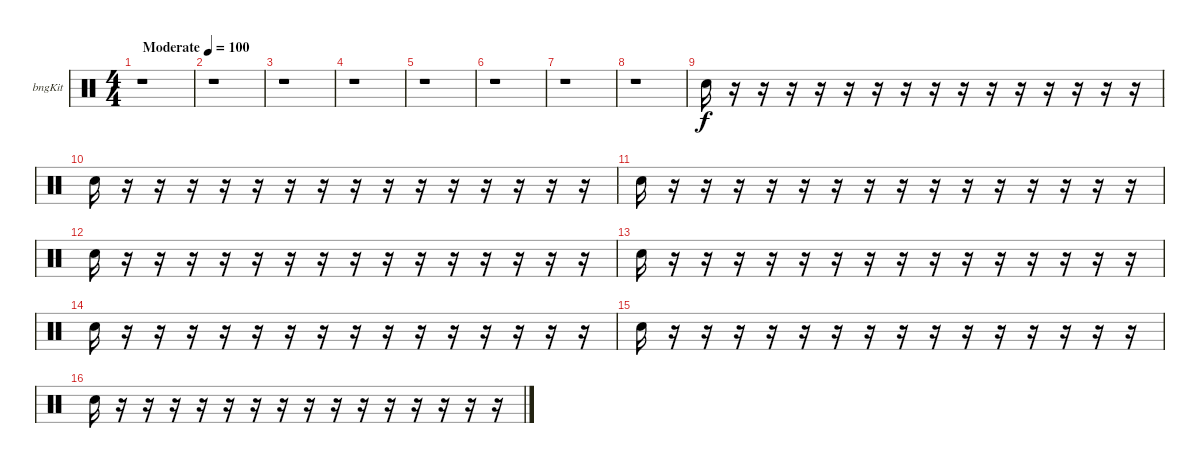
\bracketExtendMode groupsimilarinstruments
\firstSystemTrackNameOrientation horizontal
\otherSystemsTrackNameOrientation horizontal
\track ("Bongos" "bngKit") {instrument percussion}
\staff {score}
\articulation defaults
\ts (4 4)
\beaming (8 2 2 2 2)
\tempo (100 "Moderate")
\clef neutral
\ks c
r.1{dy f} |
r.1 |
r.1 |
r.1 |
r.1 |
r.1 |
r.1 |
r.1 |
"Snare (hit) 2".16 r.16 r.16 r.16 r.16 r.16 r.16 r.16 r.16 r.16 r.16 r.16 r.16 r.16 r.16 r.16 |
"Snare (hit) 2".16 r.16 r.16 r.16 r.16 r.16 r.16 r.16 r.16 r.16 r.16 r.16 r.16 r.16 r.16 r.16 |
"Snare (hit) 2".16 r.16 r.16 r.16 r.16 r.16 r.16 r.16 r.16 r.16 r.16 r.16 r.16 r.16 r.16 r.16 |
"Snare (hit) 2".16 r.16 r.16 r.16 r.16 r.16 r.16 r.16 r.16 r.16 r.16 r.16 r.16 r.16 r.16 r.16 |
"Snare (hit) 2".16 r.16 r.16 r.16 r.16 r.16 r.16 r.16 r.16 r.16 r.16 r.16 r.16 r.16 r.16 r.16 |
"Snare (hit) 2".16 r.16 r.16 r.16 r.16 r.16 r.16 r.16 r.16 r.16 r.16 r.16 r.16 r.16 r.16 r.16 |
"Snare (hit) 2".16 r.16 r.16 r.16 r.16 r.16 r.16 r.16 r.16 r.16 r.16 r.16 r.16 r.16 r.16 r.16 |
"Snare (hit) 2".16 r.16 r.16 r.16 r.16 r.16 r.16 r.16 r.16 r.16 r.16 r.16 r.16 r.16 r.16 r.16
